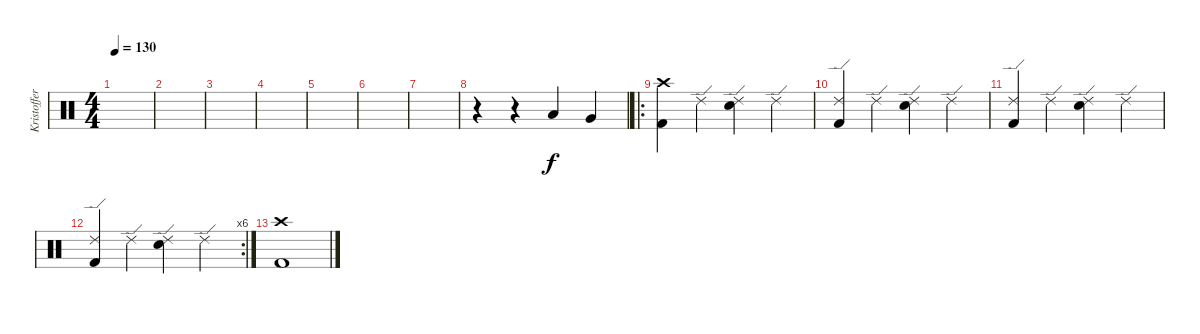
\track ("Kristoffer Söderström" "Kristoffer") {instrument percussion}
\staff {score}
\articulation defaults
\ts (4 4)
\tempo 130
\clef neutral
\ks c
|
|
|
|
|
|
|
r.4 r.4 "Low Tom (hit)".4 "Very Low Tom (hit)".4 |
\ro
("Crash high (hit)" "Kick (hit) 2").4 "Ride (edge) 2".4 ("Ride (edge) 2" "Snare (hit) 2").4 "Ride (edge) 2".4 |
("Ride (edge) 2" "Kick (hit) 2").4 "Ride (edge) 2".4 ("Ride (edge) 2" "Snare (hit) 2").4 "Ride (edge) 2".4 |
("Ride (edge) 2" "Kick (hit) 2").4 "Ride (edge) 2".4 ("Ride (edge) 2" "Snare (hit) 2").4 "Ride (edge) 2".4 |
\rc 6
("Ride (edge) 2" "Kick (hit) 2").4 "Ride (edge) 2".4 ("Ride (edge) 2" "Snare (hit) 2").4 "Ride (edge) 2".4 |
("Crash high (hit)" "Kick (hit) 2").1
